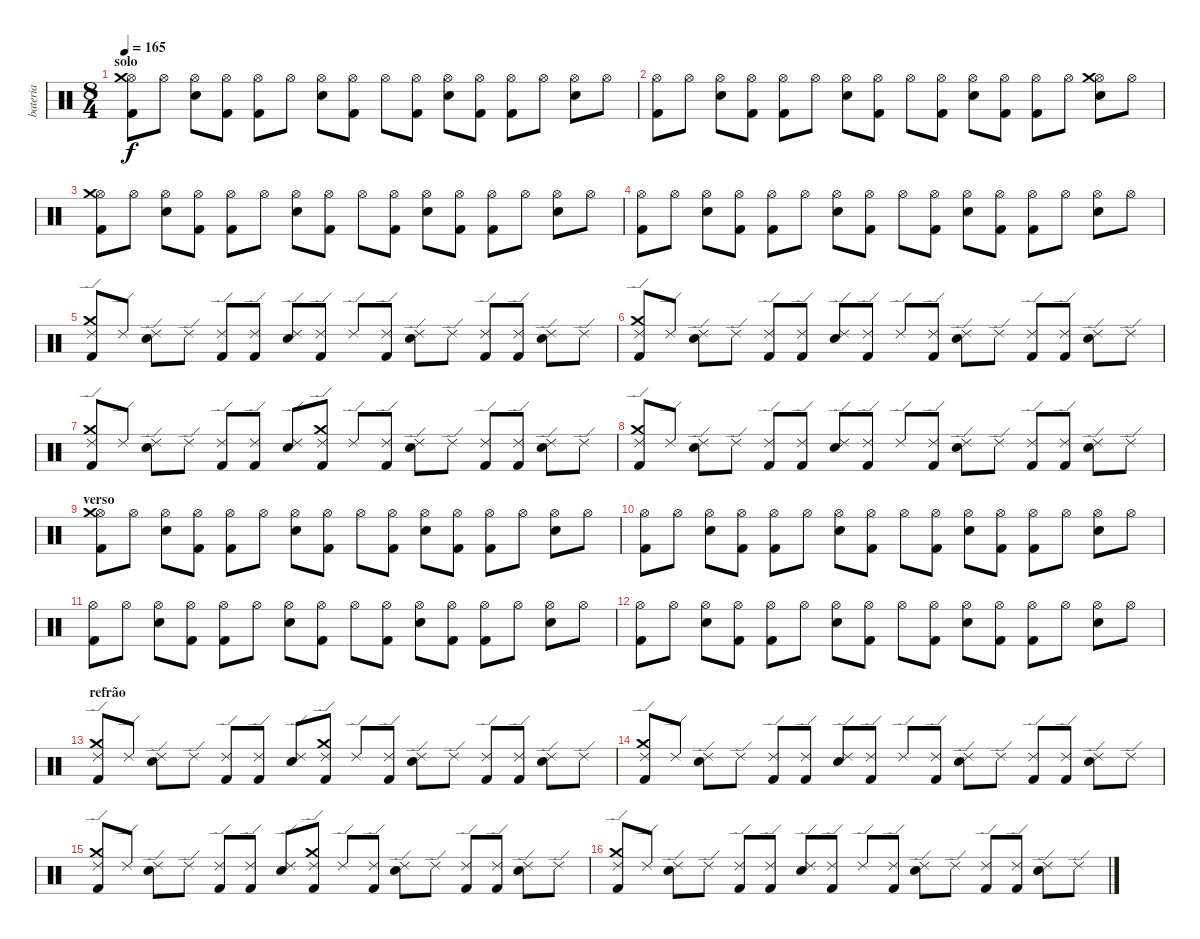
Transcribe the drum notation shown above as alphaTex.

\track ("bateria" "bateria") {instrument percussion}
\staff {score}
\articulation defaults
\ts (8 4)
\section ("" "solo")
\tempo 165
\clef neutral
\ks c
("Hi-Hat (open)" "Kick (hit) 2" "Crash medium (hit)").8{dy f} "Hi-Hat (open)".8 ("Hi-Hat (open)" "Electric Snare (hit)").8 ("Hi-Hat (open)" "Kick (hit) 2").8 ("Hi-Hat (open)" "Kick (hit) 2").8 "Hi-Hat (open)".8 ("Hi-Hat (open)" "Electric Snare (hit)").8 ("Hi-Hat (open)" "Kick (hit) 2").8 "Hi-Hat (open)".8 ("Hi-Hat (open)" "Kick (hit) 2").8 ("Hi-Hat (open)" "Electric Snare (hit)").8 ("Hi-Hat (open)" "Kick (hit) 2").8 ("Hi-Hat (open)" "Kick (hit) 2").8 "Hi-Hat (open)".8 ("Hi-Hat (open)" "Electric Snare (hit)").8 "Hi-Hat (open)".8 |
("Hi-Hat (open)" "Kick (hit) 2").8 "Hi-Hat (open)".8 ("Hi-Hat (open)" "Electric Snare (hit)").8 ("Hi-Hat (open)" "Kick (hit) 2").8 ("Hi-Hat (open)" "Kick (hit) 2").8 "Hi-Hat (open)".8 ("Hi-Hat (open)" "Electric Snare (hit)").8 ("Hi-Hat (open)" "Kick (hit) 2").8 "Hi-Hat (open)".8 ("Hi-Hat (open)" "Kick (hit) 2").8 ("Hi-Hat (open)" "Electric Snare (hit)").8 ("Hi-Hat (open)" "Kick (hit) 2").8 ("Hi-Hat (open)" "Kick (hit) 2").8 "Hi-Hat (open)".8 ("Hi-Hat (open)" "Electric Snare (hit)" "Crash medium (hit)").8 "Hi-Hat (open)".8 |
("Hi-Hat (open)" "Kick (hit) 2" "Crash medium (hit)").8 "Hi-Hat (open)".8 ("Hi-Hat (open)" "Electric Snare (hit)").8 ("Hi-Hat (open)" "Kick (hit) 2").8 ("Hi-Hat (open)" "Kick (hit) 2").8 "Hi-Hat (open)".8 ("Hi-Hat (open)" "Electric Snare (hit)").8 ("Hi-Hat (open)" "Kick (hit) 2").8 "Hi-Hat (open)".8 ("Hi-Hat (open)" "Kick (hit) 2").8 ("Hi-Hat (open)" "Electric Snare (hit)").8 ("Hi-Hat (open)" "Kick (hit) 2").8 ("Hi-Hat (open)" "Kick (hit) 2").8 "Hi-Hat (open)".8 ("Hi-Hat (open)" "Electric Snare (hit)").8 "Hi-Hat (open)".8 |
("Hi-Hat (open)" "Kick (hit) 2").8 "Hi-Hat (open)".8 ("Hi-Hat (open)" "Electric Snare (hit)").8 ("Hi-Hat (open)" "Kick (hit) 2").8 ("Hi-Hat (open)" "Kick (hit) 2").8 "Hi-Hat (open)".8 ("Hi-Hat (open)" "Electric Snare (hit)").8 ("Hi-Hat (open)" "Kick (hit) 2").8 "Hi-Hat (open)".8 ("Hi-Hat (open)" "Kick (hit) 2").8 ("Hi-Hat (open)" "Electric Snare (hit)").8 ("Hi-Hat (open)" "Kick (hit) 2").8 ("Hi-Hat (open)" "Kick (hit) 2").8 "Hi-Hat (open)".8 ("Hi-Hat (open)" "Electric Snare (hit)").8 "Hi-Hat (open)".8 |
("Ride (edge) 2" "Kick (hit) 2" "Crash medium (hit)").8 "Ride (edge) 2".8 ("Ride (edge) 2" "Electric Snare (hit)").8 "Ride (edge) 2".8 ("Ride (edge) 2" "Kick (hit) 2").8 ("Ride (edge) 2" "Kick (hit) 2").8 ("Ride (edge) 2" "Electric Snare (hit)").8 ("Ride (edge) 2" "Kick (hit) 2").8 "Ride (edge) 2".8 ("Ride (edge) 2" "Kick (hit) 2").8 ("Ride (edge) 2" "Electric Snare (hit)").8 "Ride (edge) 2".8 ("Ride (edge) 2" "Kick (hit) 2").8 ("Ride (edge) 2" "Kick (hit) 2").8 ("Ride (edge) 2" "Electric Snare (hit)").8 "Ride (edge) 2".8 |
("Ride (edge) 2" "Kick (hit) 2" "Crash medium (hit)").8 "Ride (edge) 2".8 ("Ride (edge) 2" "Electric Snare (hit)").8 "Ride (edge) 2".8 ("Ride (edge) 2" "Kick (hit) 2").8 ("Ride (edge) 2" "Kick (hit) 2").8 ("Ride (edge) 2" "Electric Snare (hit)").8 ("Ride (edge) 2" "Kick (hit) 2").8 "Ride (edge) 2".8 ("Ride (edge) 2" "Kick (hit) 2").8 ("Ride (edge) 2" "Electric Snare (hit)").8 "Ride (edge) 2".8 ("Ride (edge) 2" "Kick (hit) 2").8 ("Ride (edge) 2" "Kick (hit) 2").8 ("Ride (edge) 2" "Electric Snare (hit)").8 "Ride (edge) 2".8 |
("Ride (edge) 2" "Kick (hit) 2" "Crash medium (hit)").8 "Ride (edge) 2".8 ("Ride (edge) 2" "Electric Snare (hit)").8 "Ride (edge) 2".8 ("Ride (edge) 2" "Kick (hit) 2").8 ("Ride (edge) 2" "Kick (hit) 2").8 ("Ride (edge) 2" "Electric Snare (hit)").8 ("Ride (edge) 2" "Kick (hit) 2" "Crash medium (hit)").8 "Ride (edge) 2".8 ("Ride (edge) 2" "Kick (hit) 2").8 ("Ride (edge) 2" "Electric Snare (hit)").8 "Ride (edge) 2".8 ("Ride (edge) 2" "Kick (hit) 2").8 ("Ride (edge) 2" "Kick (hit) 2").8 ("Ride (edge) 2" "Electric Snare (hit)").8 "Ride (edge) 2".8 |
("Ride (edge) 2" "Kick (hit) 2" "Crash medium (hit)").8 "Ride (edge) 2".8 ("Ride (edge) 2" "Electric Snare (hit)").8 "Ride (edge) 2".8 ("Ride (edge) 2" "Kick (hit) 2").8 ("Ride (edge) 2" "Kick (hit) 2").8 ("Ride (edge) 2" "Electric Snare (hit)").8 ("Ride (edge) 2" "Kick (hit) 2").8 "Ride (edge) 2".8 ("Ride (edge) 2" "Kick (hit) 2").8 ("Ride (edge) 2" "Electric Snare (hit)").8 "Ride (edge) 2".8 ("Ride (edge) 2" "Kick (hit) 2").8 ("Ride (edge) 2" "Kick (hit) 2").8 ("Ride (edge) 2" "Electric Snare (hit)").8 "Ride (edge) 2".8 |
\section ("" "verso")
("Hi-Hat (open)" "Kick (hit) 2" "Crash medium (hit)").8 "Hi-Hat (open)".8 ("Hi-Hat (open)" "Electric Snare (hit)").8 ("Hi-Hat (open)" "Kick (hit) 2").8 ("Hi-Hat (open)" "Kick (hit) 2").8 "Hi-Hat (open)".8 ("Hi-Hat (open)" "Electric Snare (hit)").8 ("Hi-Hat (open)" "Kick (hit) 2").8 "Hi-Hat (open)".8 ("Hi-Hat (open)" "Kick (hit) 2").8 ("Hi-Hat (open)" "Electric Snare (hit)").8 ("Hi-Hat (open)" "Kick (hit) 2").8 ("Hi-Hat (open)" "Kick (hit) 2").8 "Hi-Hat (open)".8 ("Hi-Hat (open)" "Electric Snare (hit)").8 "Hi-Hat (open)".8 |
("Hi-Hat (open)" "Kick (hit) 2").8 "Hi-Hat (open)".8 ("Hi-Hat (open)" "Electric Snare (hit)").8 ("Hi-Hat (open)" "Kick (hit) 2").8 ("Hi-Hat (open)" "Kick (hit) 2").8 "Hi-Hat (open)".8 ("Hi-Hat (open)" "Electric Snare (hit)").8 ("Hi-Hat (open)" "Kick (hit) 2").8 "Hi-Hat (open)".8 ("Hi-Hat (open)" "Kick (hit) 2").8 ("Hi-Hat (open)" "Electric Snare (hit)").8 ("Hi-Hat (open)" "Kick (hit) 2").8 ("Hi-Hat (open)" "Kick (hit) 2").8 "Hi-Hat (open)".8 ("Hi-Hat (open)" "Electric Snare (hit)").8 "Hi-Hat (open)".8 |
("Hi-Hat (open)" "Kick (hit) 2").8 "Hi-Hat (open)".8 ("Hi-Hat (open)" "Electric Snare (hit)").8 ("Hi-Hat (open)" "Kick (hit) 2").8 ("Hi-Hat (open)" "Kick (hit) 2").8 "Hi-Hat (open)".8 ("Hi-Hat (open)" "Electric Snare (hit)").8 ("Hi-Hat (open)" "Kick (hit) 2").8 "Hi-Hat (open)".8 ("Hi-Hat (open)" "Kick (hit) 2").8 ("Hi-Hat (open)" "Electric Snare (hit)").8 ("Hi-Hat (open)" "Kick (hit) 2").8 ("Hi-Hat (open)" "Kick (hit) 2").8 "Hi-Hat (open)".8 ("Hi-Hat (open)" "Electric Snare (hit)").8 "Hi-Hat (open)".8 |
("Hi-Hat (open)" "Kick (hit) 2").8 "Hi-Hat (open)".8 ("Hi-Hat (open)" "Electric Snare (hit)").8 ("Hi-Hat (open)" "Kick (hit) 2").8 ("Hi-Hat (open)" "Kick (hit) 2").8 "Hi-Hat (open)".8 ("Hi-Hat (open)" "Electric Snare (hit)").8 ("Hi-Hat (open)" "Kick (hit) 2").8 "Hi-Hat (open)".8 ("Hi-Hat (open)" "Kick (hit) 2").8 ("Hi-Hat (open)" "Electric Snare (hit)").8 ("Hi-Hat (open)" "Kick (hit) 2").8 ("Hi-Hat (open)" "Kick (hit) 2").8 "Hi-Hat (open)".8 ("Hi-Hat (open)" "Electric Snare (hit)").8 "Hi-Hat (open)".8 |
\section ("" "refrão")
("Ride (edge) 2" "Kick (hit) 2" "Crash medium (hit)").8 "Ride (edge) 2".8 ("Ride (edge) 2" "Electric Snare (hit)").8 "Ride (edge) 2".8 ("Ride (edge) 2" "Kick (hit) 2").8 ("Ride (edge) 2" "Kick (hit) 2").8 ("Ride (edge) 2" "Electric Snare (hit)").8 ("Ride (edge) 2" "Kick (hit) 2" "Crash medium (hit)").8 "Ride (edge) 2".8 ("Ride (edge) 2" "Kick (hit) 2").8 ("Ride (edge) 2" "Electric Snare (hit)").8 "Ride (edge) 2".8 ("Ride (edge) 2" "Kick (hit) 2").8 ("Ride (edge) 2" "Kick (hit) 2").8 ("Ride (edge) 2" "Electric Snare (hit)").8 "Ride (edge) 2".8 |
("Ride (edge) 2" "Kick (hit) 2" "Crash medium (hit)").8 "Ride (edge) 2".8 ("Ride (edge) 2" "Electric Snare (hit)").8 "Ride (edge) 2".8 ("Ride (edge) 2" "Kick (hit) 2").8 ("Ride (edge) 2" "Kick (hit) 2").8 ("Ride (edge) 2" "Electric Snare (hit)").8 ("Ride (edge) 2" "Kick (hit) 2").8 "Ride (edge) 2".8 ("Ride (edge) 2" "Kick (hit) 2").8 ("Ride (edge) 2" "Electric Snare (hit)").8 "Ride (edge) 2".8 ("Ride (edge) 2" "Kick (hit) 2").8 ("Ride (edge) 2" "Kick (hit) 2").8 ("Ride (edge) 2" "Electric Snare (hit)").8 "Ride (edge) 2".8 |
("Ride (edge) 2" "Kick (hit) 2" "Crash medium (hit)").8 "Ride (edge) 2".8 ("Ride (edge) 2" "Electric Snare (hit)").8 "Ride (edge) 2".8 ("Ride (edge) 2" "Kick (hit) 2").8 ("Ride (edge) 2" "Kick (hit) 2").8 ("Ride (edge) 2" "Electric Snare (hit)").8 ("Ride (edge) 2" "Kick (hit) 2" "Crash medium (hit)").8 "Ride (edge) 2".8 ("Ride (edge) 2" "Kick (hit) 2").8 ("Ride (edge) 2" "Electric Snare (hit)").8 "Ride (edge) 2".8 ("Ride (edge) 2" "Kick (hit) 2").8 ("Ride (edge) 2" "Kick (hit) 2").8 ("Ride (edge) 2" "Electric Snare (hit)").8 "Ride (edge) 2".8 |
("Ride (edge) 2" "Kick (hit) 2" "Crash medium (hit)").8 "Ride (edge) 2".8 ("Ride (edge) 2" "Electric Snare (hit)").8 "Ride (edge) 2".8 ("Ride (edge) 2" "Kick (hit) 2").8 ("Ride (edge) 2" "Kick (hit) 2").8 ("Ride (edge) 2" "Electric Snare (hit)").8 ("Ride (edge) 2" "Kick (hit) 2").8 "Ride (edge) 2".8 ("Ride (edge) 2" "Kick (hit) 2").8 ("Ride (edge) 2" "Electric Snare (hit)").8 "Ride (edge) 2".8 ("Ride (edge) 2" "Kick (hit) 2").8 ("Ride (edge) 2" "Kick (hit) 2").8 ("Ride (edge) 2" "Electric Snare (hit)").8 "Ride (edge) 2".8
